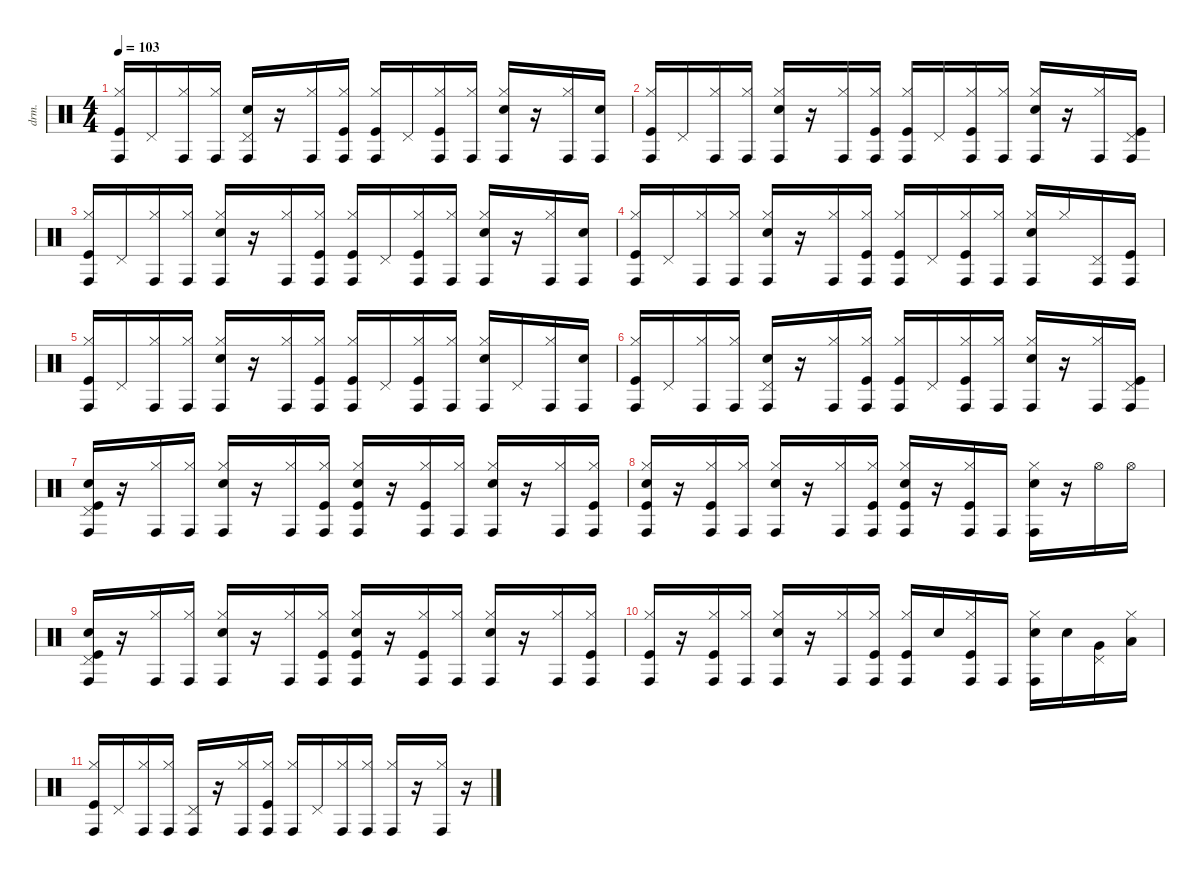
\defaultSystemsLayout 4
\hideDynamics
\bracketExtendMode nobrackets
\otherSystemsTrackNameOrientation horizontal
\track ("drums" "drm.") {instrument percussion}
\staff {score}
\articulation defaults
\ts (4 4)
\tempo 103
\clef neutral
\ks c
("Kick (hit)" "Hi-Hat (closed)" "Conga high (hit)").16{dy f} "Pedal Hi-Hat (hit)".16 ("Hi-Hat (closed)" "Conga high (hit)").16 ("Hi-Hat (closed)" "Conga high (hit)").16 ("Snare (hit) 2" "Pedal Hi-Hat (hit)" "Conga high (hit)").16 r.16 ("Hi-Hat (closed)" "Conga high (hit)").16 ("Kick (hit)" "Hi-Hat (closed)" "Conga high (hit)").16 ("Kick (hit)" "Hi-Hat (closed)" "Conga high (hit)").16 "Pedal Hi-Hat (hit)".16 ("Kick (hit)" "Hi-Hat (closed)" "Conga high (hit)").16 ("Hi-Hat (closed)" "Conga high (hit)").16 ("Snare (hit) 2" "Hi-Hat (closed)" "Conga high (hit)").16 r.16 ("Hi-Hat (closed)" "Conga high (hit)").16 ("Conga high (hit)" "Snare (hit) 2").16 |
("Kick (hit)" "Hi-Hat (closed)" "Conga high (hit)").16 "Pedal Hi-Hat (hit)".16 ("Hi-Hat (closed)" "Conga high (hit)").16 ("Hi-Hat (closed)" "Conga high (hit)").16 ("Snare (hit) 2" "Hi-Hat (closed)" "Conga high (hit)").16 r.16 ("Hi-Hat (closed)" "Conga high (hit)").16 ("Kick (hit)" "Hi-Hat (closed)" "Conga high (hit)").16 ("Kick (hit)" "Hi-Hat (closed)" "Conga high (hit)").16 "Pedal Hi-Hat (hit)".16 ("Kick (hit)" "Hi-Hat (closed)" "Conga high (hit)").16 ("Hi-Hat (closed)" "Conga high (hit)").16 ("Snare (hit) 2" "Hi-Hat (closed)" "Conga high (hit)").16 r.16 ("Hi-Hat (closed)" "Conga high (hit)").16 ("Kick (hit)" "Pedal Hi-Hat (hit)" "Conga high (hit)").16 |
("Kick (hit)" "Hi-Hat (closed)" "Conga high (hit)").16 "Pedal Hi-Hat (hit)".16 ("Hi-Hat (closed)" "Conga high (hit)").16 ("Hi-Hat (closed)" "Conga high (hit)").16 ("Snare (hit) 2" "Hi-Hat (closed)" "Conga high (hit)").16 r.16 ("Hi-Hat (closed)" "Conga high (hit)").16 ("Kick (hit)" "Hi-Hat (closed)" "Conga high (hit)").16 ("Kick (hit)" "Hi-Hat (closed)" "Conga high (hit)").16 "Pedal Hi-Hat (hit)".16 ("Kick (hit)" "Hi-Hat (closed)" "Conga high (hit)").16 ("Hi-Hat (closed)" "Conga high (hit)").16 ("Snare (hit) 2" "Hi-Hat (closed)" "Conga high (hit)").16 r.16 ("Hi-Hat (closed)" "Conga high (hit)").16 ("Conga high (hit)" "Snare (hit) 2").16 |
("Kick (hit)" "Hi-Hat (closed)" "Conga high (hit)").16 "Pedal Hi-Hat (hit)".16 ("Hi-Hat (closed)" "Conga high (hit)").16 ("Hi-Hat (closed)" "Conga high (hit)").16 ("Snare (hit) 2" "Hi-Hat (closed)" "Conga high (hit)").16 r.16 ("Hi-Hat (closed)" "Conga high (hit)").16 ("Kick (hit)" "Hi-Hat (closed)" "Conga high (hit)").16 ("Kick (hit)" "Hi-Hat (closed)" "Conga high (hit)").16 "Pedal Hi-Hat (hit)".16 ("Kick (hit)" "Hi-Hat (closed)" "Conga high (hit)").16 ("Hi-Hat (closed)" "Conga high (hit)").16 ("Snare (hit) 2" "Hi-Hat (closed)" "Conga high (hit)").16 "Hi-Hat (closed)".16 ("Conga high (hit)" "Pedal Hi-Hat (hit)").16 ("Conga high (hit)" "Kick (hit)").16 |
("Kick (hit)" "Hi-Hat (closed)" "Conga high (hit)").16 "Pedal Hi-Hat (hit)".16 ("Hi-Hat (closed)" "Conga high (hit)").16 ("Hi-Hat (closed)" "Conga high (hit)").16 ("Snare (hit) 2" "Hi-Hat (closed)" "Conga high (hit)").16 r.16 ("Hi-Hat (closed)" "Conga high (hit)").16 ("Kick (hit)" "Hi-Hat (closed)" "Conga high (hit)").16 ("Kick (hit)" "Hi-Hat (closed)" "Conga high (hit)").16 "Pedal Hi-Hat (hit)".16 ("Kick (hit)" "Hi-Hat (closed)" "Conga high (hit)").16 ("Hi-Hat (closed)" "Conga high (hit)").16 ("Snare (hit) 2" "Hi-Hat (closed)" "Conga high (hit)").16 "Pedal Hi-Hat (hit)".16 ("Hi-Hat (closed)" "Conga high (hit)").16 ("Snare (hit) 2" "Conga high (hit)").16 |
("Kick (hit)" "Hi-Hat (closed)" "Conga high (hit)").16 "Pedal Hi-Hat (hit)".16 ("Hi-Hat (closed)" "Conga high (hit)").16 ("Hi-Hat (closed)" "Conga high (hit)").16 ("Snare (hit) 2" "Pedal Hi-Hat (hit)" "Conga high (hit)").16 r.16 ("Hi-Hat (closed)" "Conga high (hit)").16 ("Kick (hit)" "Hi-Hat (closed)" "Conga high (hit)").16 ("Kick (hit)" "Hi-Hat (closed)" "Conga high (hit)").16 "Pedal Hi-Hat (hit)".16 ("Kick (hit)" "Hi-Hat (closed)" "Conga high (hit)").16 ("Hi-Hat (closed)" "Conga high (hit)").16 ("Snare (hit) 2" "Hi-Hat (closed)" "Conga high (hit)").16 r.16 ("Hi-Hat (closed)" "Conga high (hit)").16 ("Kick (hit)" "Pedal Hi-Hat (hit)" "Conga high (hit)").16 |
("Kick (hit)" "Snare (hit) 2" "Pedal Hi-Hat (hit)" "Conga high (hit)").16 r.16 ("Hi-Hat (closed)" "Conga high (hit)").16 ("Hi-Hat (closed)" "Conga high (hit)").16 ("Snare (hit) 2" "Hi-Hat (closed)" "Conga high (hit)").16 r.16 ("Hi-Hat (closed)" "Conga high (hit)").16 ("Kick (hit)" "Hi-Hat (closed)" "Conga high (hit)").16 ("Kick (hit)" "Snare (hit) 2" "Hi-Hat (closed)" "Conga high (hit)").16 r.16 ("Kick (hit)" "Hi-Hat (closed)" "Conga high (hit)").16 ("Hi-Hat (closed)" "Conga high (hit)").16 ("Snare (hit) 2" "Hi-Hat (closed)" "Conga high (hit)").16 r.16 ("Hi-Hat (closed)" "Conga high (hit)").16 ("Kick (hit)" "Hi-Hat (closed)" "Conga high (hit)").16 |
("Kick (hit)" "Snare (hit) 2" "Hi-Hat (closed)" "Conga high (hit)").16 r.16 ("Kick (hit)" "Hi-Hat (closed)" "Conga high (hit)").16 ("Hi-Hat (closed)" "Conga high (hit)").16 ("Snare (hit) 2" "Hi-Hat (closed)" "Conga high (hit)").16 r.16 ("Hi-Hat (closed)" "Conga high (hit)").16 ("Kick (hit)" "Hi-Hat (closed)" "Conga high (hit)").16 ("Kick (hit)" "Snare (hit) 2" "Hi-Hat (closed)" "Conga high (hit)").16 r.16 ("Kick (hit)" "Hi-Hat (closed)" "Conga high (hit)").16 "Conga high (hit)".16 ("Snare (hit) 2" "Hi-Hat (closed)" "Conga high (hit)").16 r.16 "Hi-Hat (open)".16 "Hi-Hat (open)".16 |
("Kick (hit)" "Snare (hit) 2" "Pedal Hi-Hat (hit)" "Conga high (hit)").16 r.16 ("Hi-Hat (closed)" "Conga high (hit)").16 ("Hi-Hat (closed)" "Conga high (hit)").16 ("Snare (hit) 2" "Hi-Hat (closed)" "Conga high (hit)").16 r.16 ("Hi-Hat (closed)" "Conga high (hit)").16 ("Kick (hit)" "Hi-Hat (closed)" "Conga high (hit)").16 ("Kick (hit)" "Snare (hit) 2" "Hi-Hat (closed)" "Conga high (hit)").16 r.16 ("Kick (hit)" "Hi-Hat (closed)" "Conga high (hit)").16 ("Hi-Hat (closed)" "Conga high (hit)").16 ("Snare (hit) 2" "Hi-Hat (closed)" "Conga high (hit)").16 r.16 ("Hi-Hat (closed)" "Conga high (hit)").16 ("Kick (hit)" "Hi-Hat (closed)" "Conga high (hit)").16 |
("Kick (hit)" "Hi-Hat (closed)" "Conga high (hit)").16 r.16 ("Kick (hit)" "Hi-Hat (closed)" "Conga high (hit)").16 ("Hi-Hat (closed)" "Conga high (hit)").16 ("Snare (hit) 2" "Hi-Hat (closed)" "Conga high (hit)").16 r.16 ("Hi-Hat (closed)" "Conga high (hit)").16 ("Kick (hit)" "Hi-Hat (closed)" "Conga high (hit)").16 ("Kick (hit)" "Hi-Hat (closed)" "Conga high (hit)").16 "Snare (hit) 2".16 ("Kick (hit)" "Hi-Hat (closed)" "Conga high (hit)").16 "Conga high (hit)".16 ("Hi-Hat (closed)" "Conga high (hit)" "Snare (hit) 2").16 "Snare (hit) 2".16 ("Very Low Tom (hit)" "Pedal Hi-Hat (hit)").16 ("Low Floor Tom (hit)" "Hi-Hat (closed)").16 |
("Kick (hit)" "Hi-Hat (closed)" "Conga high (hit)").16 "Pedal Hi-Hat (hit)".16 ("Hi-Hat (closed)" "Conga high (hit)").16 ("Hi-Hat (closed)" "Conga high (hit)").16 ("Pedal Hi-Hat (hit)" "Conga high (hit)").16 r.16 ("Hi-Hat (closed)" "Conga high (hit)").16 ("Kick (hit)" "Hi-Hat (closed)" "Conga high (hit)").16 ("Hi-Hat (closed)" "Conga high (hit)").16 "Pedal Hi-Hat (hit)".16 ("Hi-Hat (closed)" "Conga high (hit)").16 ("Hi-Hat (closed)" "Conga high (hit)").16 ("Hi-Hat (closed)" "Conga high (hit)").16 r.16 ("Hi-Hat (closed)" "Conga high (hit)").16 r.16
